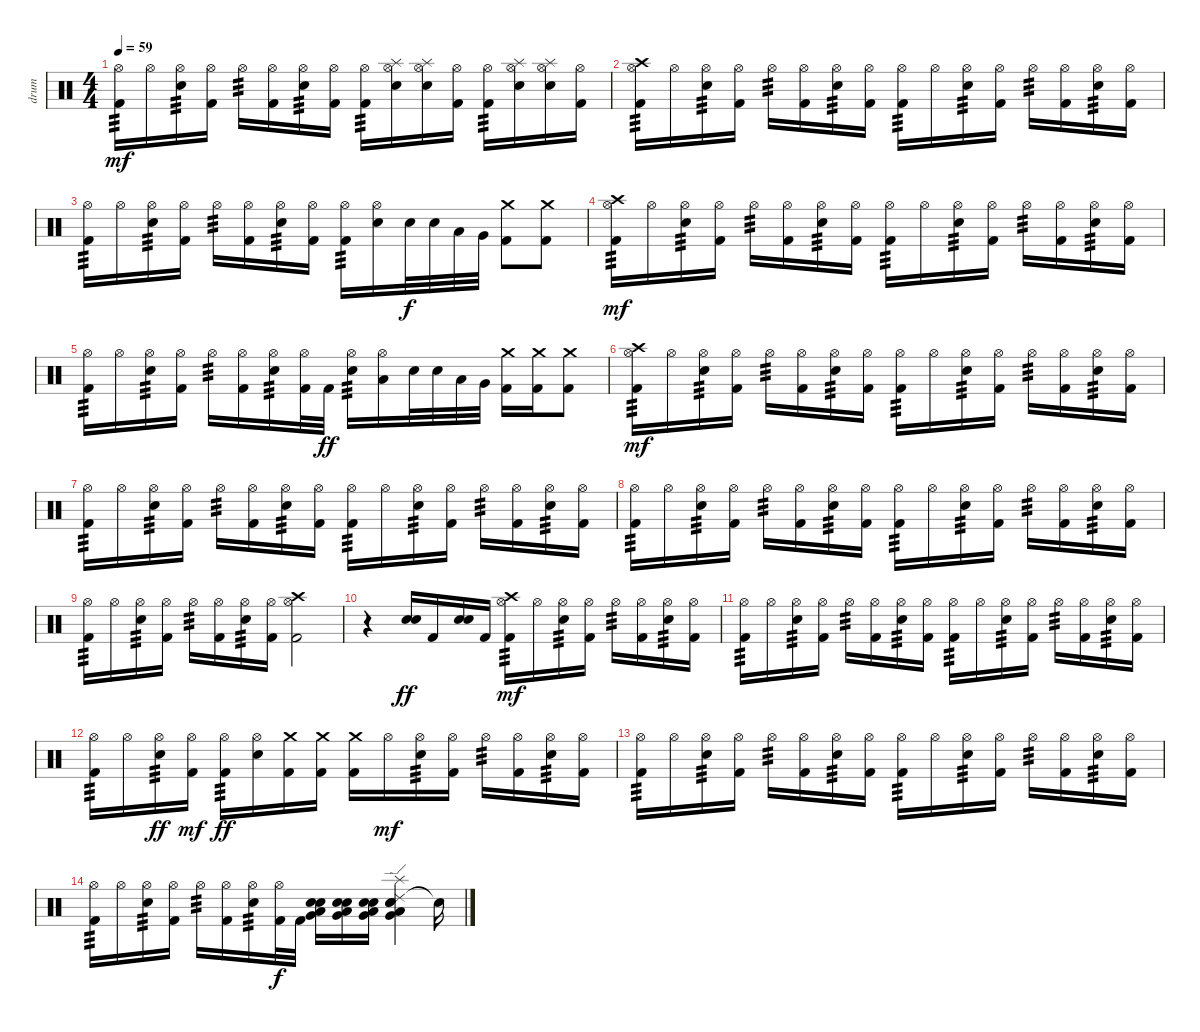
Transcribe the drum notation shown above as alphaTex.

\track ("drum" "drum") {instrument percussion}
\staff {score}
\articulation defaults
\ts (4 4)
\tempo 59
\clef neutral
\ks c
("Hi-Hat (open)" "Kick (hit) 2").16{tp 3 dy mf} "Hi-Hat (open)".16 ("Hi-Hat (open)" "Electric Snare (hit)").16{tp 3} ("Hi-Hat (open)" "Kick (hit) 2").16 "Hi-Hat (open)".16{tp 3} ("Hi-Hat (open)" "Kick (hit) 2").16 ("Hi-Hat (open)" "Electric Snare (hit)").16{tp 3} ("Hi-Hat (open)" "Kick (hit) 2").16 ("Hi-Hat (open)" "Kick (hit) 2").16{tp 3} ("Splash (hit)" "Hi-Hat (open)" "Electric Snare (hit)").16 ("Splash (hit)" "Hi-Hat (open)" "Electric Snare (hit)").16 ("Hi-Hat (open)" "Kick (hit) 2").16 ("Hi-Hat (open)" "Kick (hit) 2").16{tp 3} ("Splash (hit)" "Hi-Hat (open)" "Electric Snare (hit)").16 ("Splash (hit)" "Hi-Hat (open)" "Electric Snare (hit)").16 ("Hi-Hat (open)" "Kick (hit) 2").16 |
("Crash high (hit)" "Hi-Hat (open)" "Kick (hit) 2").16{tp 3} "Hi-Hat (open)".16 ("Hi-Hat (open)" "Electric Snare (hit)").16{tp 3} ("Hi-Hat (open)" "Kick (hit) 2").16 "Hi-Hat (open)".16{tp 3} ("Hi-Hat (open)" "Kick (hit) 2").16 ("Hi-Hat (open)" "Electric Snare (hit)").16{tp 3} ("Hi-Hat (open)" "Kick (hit) 2").16 ("Hi-Hat (open)" "Kick (hit) 2").16{tp 3} "Hi-Hat (open)".16 ("Hi-Hat (open)" "Electric Snare (hit)").16{tp 3} ("Hi-Hat (open)" "Kick (hit) 2").16 "Hi-Hat (open)".16{tp 3} ("Hi-Hat (open)" "Kick (hit) 2").16 ("Hi-Hat (open)" "Electric Snare (hit)").16{tp 3} ("Hi-Hat (open)" "Kick (hit) 2").16 |
("Hi-Hat (open)" "Kick (hit) 2").16{tp 3} "Hi-Hat (open)".16 ("Hi-Hat (open)" "Electric Snare (hit)").16{tp 3} ("Hi-Hat (open)" "Kick (hit) 2").16 "Hi-Hat (open)".16{tp 3} ("Hi-Hat (open)" "Kick (hit) 2").16 ("Hi-Hat (open)" "Electric Snare (hit)").16{tp 3} ("Hi-Hat (open)" "Kick (hit) 2").16 ("Hi-Hat (open)" "Kick (hit) 2").16{tp 3} ("Hi-Hat (open)" "Electric Snare (hit)").16 "Electric Snare (hit)".32{dy f} "Electric Snare (hit)".32 "Low Tom (hit)".32 "Very Low Tom (hit)".32 ("Crash medium (hit)" "Kick (hit) 2").8 ("Crash medium (hit)" "Kick (hit) 2").8 |
("Crash high (hit)" "Hi-Hat (open)" "Kick (hit) 2").16{tp 3 dy mf} "Hi-Hat (open)".16 ("Hi-Hat (open)" "Electric Snare (hit)").16{tp 3} ("Hi-Hat (open)" "Kick (hit) 2").16 "Hi-Hat (open)".16{tp 3} ("Hi-Hat (open)" "Kick (hit) 2").16 ("Hi-Hat (open)" "Electric Snare (hit)").16{tp 3} ("Hi-Hat (open)" "Kick (hit) 2").16 ("Hi-Hat (open)" "Kick (hit) 2").16{tp 3} "Hi-Hat (open)".16 ("Hi-Hat (open)" "Electric Snare (hit)").16{tp 3} ("Hi-Hat (open)" "Kick (hit) 2").16 "Hi-Hat (open)".16{tp 3} ("Hi-Hat (open)" "Kick (hit) 2").16 ("Hi-Hat (open)" "Electric Snare (hit)").16{tp 3} ("Hi-Hat (open)" "Kick (hit) 2").16 |
("Hi-Hat (open)" "Kick (hit) 2").16{tp 3} "Hi-Hat (open)".16 ("Hi-Hat (open)" "Electric Snare (hit)").16{tp 3} ("Hi-Hat (open)" "Kick (hit) 2").16 "Hi-Hat (open)".16{tp 3} ("Hi-Hat (open)" "Kick (hit) 2").16 ("Hi-Hat (open)" "Electric Snare (hit)").16{tp 3} ("Hi-Hat (open)" "Kick (hit) 2").32 "Kick (hit) 2".32{dy ff} ("Hi-Hat (open)" "Electric Snare (hit)").16{tp 3} ("Hi-Hat (open)" "Low Tom (hit)").16 "Electric Snare (hit)".32 "Electric Snare (hit)".32 "Low Tom (hit)".32 "Very Low Tom (hit)".32 ("Crash medium (hit)" "Kick (hit) 2").16 ("Crash medium (hit)" "Kick (hit) 2").16 ("Crash medium (hit)" "Kick (hit) 2").8 |
("Crash high (hit)" "Hi-Hat (open)" "Kick (hit) 2").16{tp 3 dy mf} "Hi-Hat (open)".16 ("Hi-Hat (open)" "Electric Snare (hit)").16{tp 3} ("Hi-Hat (open)" "Kick (hit) 2").16 "Hi-Hat (open)".16{tp 3} ("Hi-Hat (open)" "Kick (hit) 2").16 ("Hi-Hat (open)" "Electric Snare (hit)").16{tp 3} ("Hi-Hat (open)" "Kick (hit) 2").16 ("Hi-Hat (open)" "Kick (hit) 2").16{tp 3} "Hi-Hat (open)".16 ("Hi-Hat (open)" "Electric Snare (hit)").16{tp 3} ("Hi-Hat (open)" "Kick (hit) 2").16 "Hi-Hat (open)".16{tp 3} ("Hi-Hat (open)" "Kick (hit) 2").16 ("Hi-Hat (open)" "Electric Snare (hit)").16{tp 3} ("Hi-Hat (open)" "Kick (hit) 2").16 |
("Hi-Hat (open)" "Kick (hit) 2").16{tp 3} "Hi-Hat (open)".16 ("Hi-Hat (open)" "Electric Snare (hit)").16{tp 3} ("Hi-Hat (open)" "Kick (hit) 2").16 "Hi-Hat (open)".16{tp 3} ("Hi-Hat (open)" "Kick (hit) 2").16 ("Hi-Hat (open)" "Electric Snare (hit)").16{tp 3} ("Hi-Hat (open)" "Kick (hit) 2").16 ("Hi-Hat (open)" "Kick (hit) 2").16{tp 3} "Hi-Hat (open)".16 ("Hi-Hat (open)" "Electric Snare (hit)").16{tp 3} ("Hi-Hat (open)" "Kick (hit) 2").16 "Hi-Hat (open)".16{tp 3} ("Hi-Hat (open)" "Kick (hit) 2").16 ("Hi-Hat (open)" "Electric Snare (hit)").16{tp 3} ("Hi-Hat (open)" "Kick (hit) 2").16 |
("Hi-Hat (open)" "Kick (hit) 2").16{tp 3} "Hi-Hat (open)".16 ("Hi-Hat (open)" "Electric Snare (hit)").16{tp 3} ("Hi-Hat (open)" "Kick (hit) 2").16 "Hi-Hat (open)".16{tp 3} ("Hi-Hat (open)" "Kick (hit) 2").16 ("Hi-Hat (open)" "Electric Snare (hit)").16{tp 3} ("Hi-Hat (open)" "Kick (hit) 2").16 ("Hi-Hat (open)" "Kick (hit) 2").16{tp 3} "Hi-Hat (open)".16 ("Hi-Hat (open)" "Electric Snare (hit)").16{tp 3} ("Hi-Hat (open)" "Kick (hit) 2").16 "Hi-Hat (open)".16{tp 3} ("Hi-Hat (open)" "Kick (hit) 2").16 ("Hi-Hat (open)" "Electric Snare (hit)").16{tp 3} ("Hi-Hat (open)" "Kick (hit) 2").16 |
("Hi-Hat (open)" "Kick (hit) 2").16{tp 3} "Hi-Hat (open)".16 ("Hi-Hat (open)" "Electric Snare (hit)").16{tp 3} ("Hi-Hat (open)" "Kick (hit) 2").16 "Hi-Hat (open)".16{tp 3} ("Hi-Hat (open)" "Kick (hit) 2").16 ("Hi-Hat (open)" "Electric Snare (hit)").16{tp 3} ("Hi-Hat (open)" "Kick (hit) 2").16 ("Crash high (hit)" "Hi-Hat (open)" "Kick (hit) 2").2 |
r.4 ("Electric Snare (hit)" "Electric Snare (hit)").16{bd 60 dy ff} "Kick (hit) 2".16 ("Electric Snare (hit)" "Electric Snare (hit)").16{bd 60} "Kick (hit) 2".16 ("Crash high (hit)" "Hi-Hat (open)" "Kick (hit) 2").16{tp 3 dy mf} "Hi-Hat (open)".16 ("Hi-Hat (open)" "Electric Snare (hit)").16{tp 3} ("Hi-Hat (open)" "Kick (hit) 2").16 "Hi-Hat (open)".16{tp 3} ("Hi-Hat (open)" "Kick (hit) 2").16 ("Hi-Hat (open)" "Electric Snare (hit)").16{tp 3} ("Hi-Hat (open)" "Kick (hit) 2").16 |
("Hi-Hat (open)" "Kick (hit) 2").16{tp 3} "Hi-Hat (open)".16 ("Hi-Hat (open)" "Electric Snare (hit)").16{tp 3} ("Hi-Hat (open)" "Kick (hit) 2").16 "Hi-Hat (open)".16{tp 3} ("Hi-Hat (open)" "Kick (hit) 2").16 ("Hi-Hat (open)" "Electric Snare (hit)").16{tp 3} ("Hi-Hat (open)" "Kick (hit) 2").16 ("Hi-Hat (open)" "Kick (hit) 2").16{tp 3} "Hi-Hat (open)".16 ("Hi-Hat (open)" "Electric Snare (hit)").16{tp 3} ("Hi-Hat (open)" "Kick (hit) 2").16 "Hi-Hat (open)".16{tp 3} ("Hi-Hat (open)" "Kick (hit) 2").16 ("Hi-Hat (open)" "Electric Snare (hit)").16{tp 3} ("Hi-Hat (open)" "Kick (hit) 2").16 |
("Hi-Hat (open)" "Kick (hit) 2").16{tp 3} "Hi-Hat (open)".16 ("Hi-Hat (open)" "Electric Snare (hit)").16{tp 3 dy ff} ("Hi-Hat (open)" "Kick (hit) 2").16{dy mf} ("Hi-Hat (open)" "Kick (hit) 2").16{tp 3 dy ff} ("Hi-Hat (open)" "Electric Snare (hit)").16 ("Crash medium (hit)" "Kick (hit) 2").16 ("Crash medium (hit)" "Kick (hit) 2").16 ("Crash medium (hit)" "Kick (hit) 2").16 "Hi-Hat (open)".16{dy mf} ("Hi-Hat (open)" "Electric Snare (hit)").16{tp 3} ("Hi-Hat (open)" "Kick (hit) 2").16 "Hi-Hat (open)".16{tp 3} ("Hi-Hat (open)" "Kick (hit) 2").16 ("Hi-Hat (open)" "Electric Snare (hit)").16{tp 3} ("Hi-Hat (open)" "Kick (hit) 2").16 |
("Hi-Hat (open)" "Kick (hit) 2").16{tp 3} "Hi-Hat (open)".16 ("Hi-Hat (open)" "Electric Snare (hit)").16{tp 3} ("Hi-Hat (open)" "Kick (hit) 2").16 "Hi-Hat (open)".16{tp 3} ("Hi-Hat (open)" "Kick (hit) 2").16 ("Hi-Hat (open)" "Electric Snare (hit)").16{tp 3} ("Hi-Hat (open)" "Kick (hit) 2").16 ("Hi-Hat (open)" "Kick (hit) 2").16{tp 3} "Hi-Hat (open)".16 ("Hi-Hat (open)" "Electric Snare (hit)").16{tp 3} ("Hi-Hat (open)" "Kick (hit) 2").16 "Hi-Hat (open)".16{tp 3} ("Hi-Hat (open)" "Kick (hit) 2").16 ("Hi-Hat (open)" "Electric Snare (hit)").16{tp 3} ("Hi-Hat (open)" "Kick (hit) 2").16 |
("Hi-Hat (open)" "Kick (hit) 2").16{tp 3} "Hi-Hat (open)".16 ("Hi-Hat (open)" "Electric Snare (hit)").16{tp 3} ("Hi-Hat (open)" "Kick (hit) 2").16 "Hi-Hat (open)".16{tp 3} ("Hi-Hat (open)" "Kick (hit) 2").16 ("Hi-Hat (open)" "Electric Snare (hit)").16{tp 3} ("Hi-Hat (open)" "Kick (hit) 2").32{dy f} "Kick (hit) 2".32 ("Very Low Tom (hit)" "Low Floor Tom (hit)" "Electric Snare (hit)" "Snare (hit) 2").16 ("Very Low Tom (hit)" "Low Floor Tom (hit)" "Electric Snare (hit)" "Snare (hit) 2").16 ("Very Low Tom (hit)" "Low Floor Tom (hit)" "Electric Snare (hit)" "Snare (hit) 2").16 ("Ride (edge) 2" "Splash (hit)" "Very Low Tom (hit)" "Low Floor Tom (hit)" "Electric Snare (hit)" "Snare (hit) 2").4 "Snare (hit)"{t}.16
